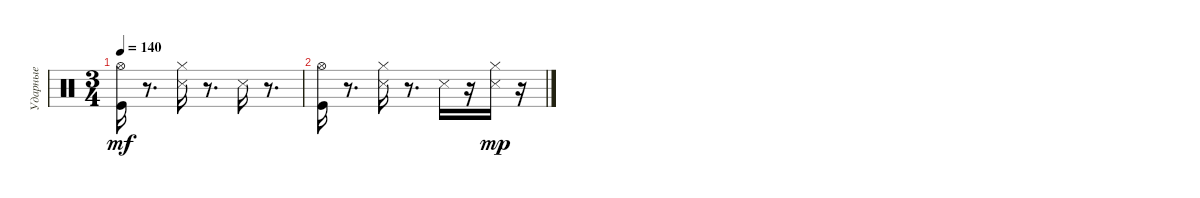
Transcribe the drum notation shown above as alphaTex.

\track ("Ударные" "Ударные") {instrument percussion}
\staff {score}
\articulation defaults
\ts (3 4)
\tempo 140
\clef neutral
\ks c
("Kick (hit)" "Hi-Hat (open)").16{dy mf} r.8{d} ("Hi-Hat (closed)" "Snare (side stick) 3").16 r.8{d} "Snare (side stick) 3".16 r.8{d} |
("Kick (hit)" "Hi-Hat (open)").16 r.8{d} ("Hi-Hat (closed)" "Snare (side stick) 3").16 r.8{d} "Snare (side stick) 3".16 r.16 ("Hi-Hat (closed)" "Snare (side stick) 3").16{dy mp} r.16
